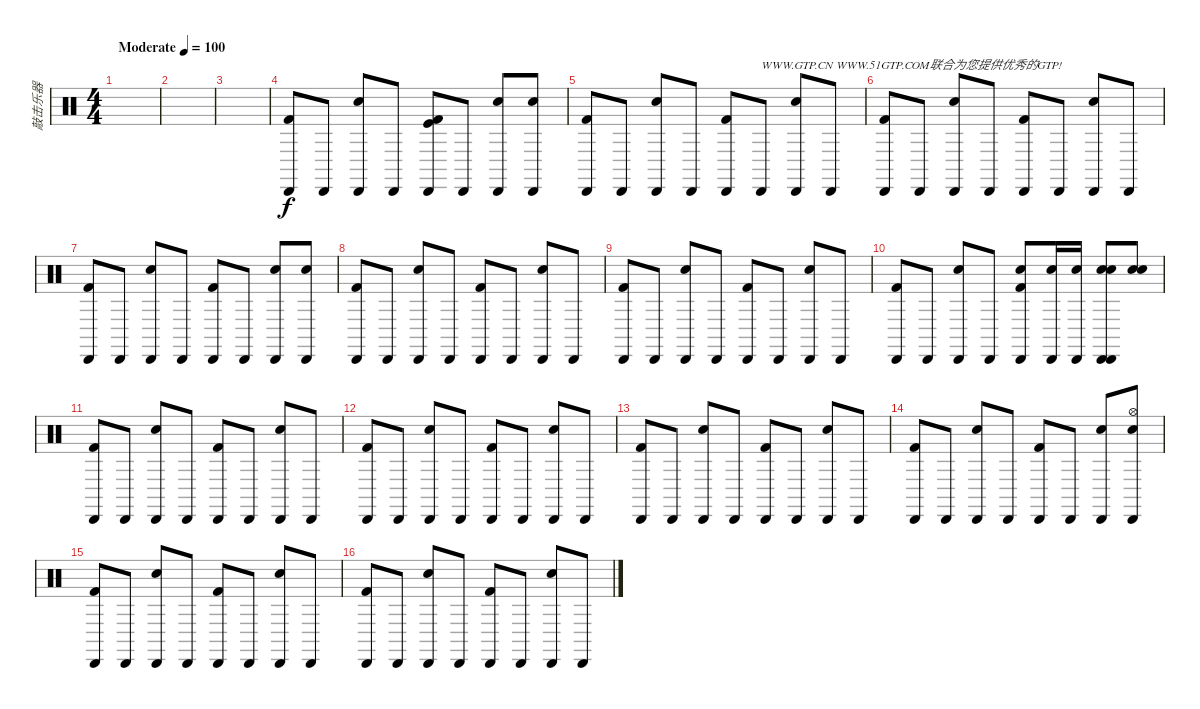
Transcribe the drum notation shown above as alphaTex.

\track ("敲击乐器" "敲击乐器") {instrument percussion}
\staff {score}
\articulation defaults
\ts (4 4)
\tempo (100 "Moderate")
\clef neutral
\ks c
|
|
|
("Cabasa (hit)" "Kick (hit) 2").8 "Cabasa (hit)".8 ("Cabasa (hit)" "Snare (hit) 2").8 "Cabasa (hit)".8 ("Cabasa (hit)" "Kick (hit)" "Kick (hit) 2").8 "Cabasa (hit)".8 ("Cabasa (hit)" "Snare (hit) 2").8 ("Cabasa (hit)" "Electric Snare (hit)").8 |
("Cabasa (hit)" "Kick (hit) 2").8 "Cabasa (hit)".8 ("Cabasa (hit)" "Snare (hit) 2").8 "Cabasa (hit)".8 ("Cabasa (hit)" "Kick (hit) 2").8 "Cabasa (hit)".8{txt "WWW.GTP.CN WWW.51GTP.COM联合为您提供优秀的GTP!"} ("Cabasa (hit)" "Snare (hit) 2").8 "Cabasa (hit)".8 |
("Cabasa (hit)" "Kick (hit) 2").8 "Cabasa (hit)".8 ("Cabasa (hit)" "Snare (hit) 2").8 "Cabasa (hit)".8 ("Cabasa (hit)" "Kick (hit) 2").8 "Cabasa (hit)".8 ("Cabasa (hit)" "Snare (hit) 2").8 "Cabasa (hit)".8 |
("Cabasa (hit)" "Kick (hit) 2").8 "Cabasa (hit)".8 ("Cabasa (hit)" "Snare (hit) 2").8 "Cabasa (hit)".8 ("Cabasa (hit)" "Kick (hit) 2").8 "Cabasa (hit)".8 ("Cabasa (hit)" "Snare (hit) 2").8 ("Cabasa (hit)" "Electric Snare (hit)").8 |
("Cabasa (hit)" "Kick (hit) 2").8 "Cabasa (hit)".8 ("Cabasa (hit)" "Snare (hit) 2").8 "Cabasa (hit)".8 ("Cabasa (hit)" "Kick (hit) 2").8 "Cabasa (hit)".8 ("Cabasa (hit)" "Snare (hit) 2").8 "Cabasa (hit)".8 |
("Cabasa (hit)" "Kick (hit) 2").8 "Cabasa (hit)".8 ("Cabasa (hit)" "Snare (hit) 2").8 "Cabasa (hit)".8 ("Cabasa (hit)" "Kick (hit) 2").8 "Cabasa (hit)".8 ("Cabasa (hit)" "Snare (hit) 2").8 "Cabasa (hit)".8 |
("Cabasa (hit)" "Kick (hit) 2").8 "Cabasa (hit)".8 ("Cabasa (hit)" "Snare (hit) 2").8 "Cabasa (hit)".8 ("Cabasa (hit)" "Kick (hit) 2" "Snare (hit) 2").8 ("Cabasa (hit)" "Snare (hit) 2").16 ("Cabasa (hit)" "Snare (hit) 2").16 ("Cabasa (hit)" "Snare (hit) 2" "Electric Snare (hit)" "Cabasa (hit)").8 ("Electric Snare (hit)" "Snare (hit) 2").8 |
("Cabasa (hit)" "Kick (hit) 2").8 "Cabasa (hit)".8 ("Cabasa (hit)" "Snare (hit) 2").8 "Cabasa (hit)".8 ("Cabasa (hit)" "Kick (hit) 2").8 "Cabasa (hit)".8 ("Cabasa (hit)" "Snare (hit) 2").8 "Cabasa (hit)".8 |
("Cabasa (hit)" "Kick (hit) 2").8 "Cabasa (hit)".8 ("Cabasa (hit)" "Snare (hit) 2").8 "Cabasa (hit)".8 ("Cabasa (hit)" "Kick (hit) 2").8 "Cabasa (hit)".8 ("Cabasa (hit)" "Snare (hit) 2").8 "Cabasa (hit)".8 |
("Cabasa (hit)" "Kick (hit) 2").8 "Cabasa (hit)".8 ("Cabasa (hit)" "Snare (hit) 2").8 "Cabasa (hit)".8 ("Cabasa (hit)" "Kick (hit) 2").8 "Cabasa (hit)".8 ("Cabasa (hit)" "Snare (hit) 2").8 "Cabasa (hit)".8 |
("Cabasa (hit)" "Kick (hit) 2").8 "Cabasa (hit)".8 ("Cabasa (hit)" "Snare (hit) 2").8 "Cabasa (hit)".8 ("Cabasa (hit)" "Kick (hit) 2").8 "Cabasa (hit)".8 ("Cabasa (hit)" "Snare (hit) 2").8 ("Cabasa (hit)" "Hi-Hat (open)" "Electric Snare (hit)").8 |
("Cabasa (hit)" "Kick (hit) 2").8 "Cabasa (hit)".8 ("Cabasa (hit)" "Snare (hit) 2").8 "Cabasa (hit)".8 ("Cabasa (hit)" "Kick (hit) 2").8 "Cabasa (hit)".8 ("Cabasa (hit)" "Snare (hit) 2").8 "Cabasa (hit)".8 |
("Cabasa (hit)" "Kick (hit) 2").8 "Cabasa (hit)".8 ("Cabasa (hit)" "Snare (hit) 2").8 "Cabasa (hit)".8 ("Cabasa (hit)" "Kick (hit) 2").8 "Cabasa (hit)".8 ("Cabasa (hit)" "Snare (hit) 2").8 "Cabasa (hit)".8
